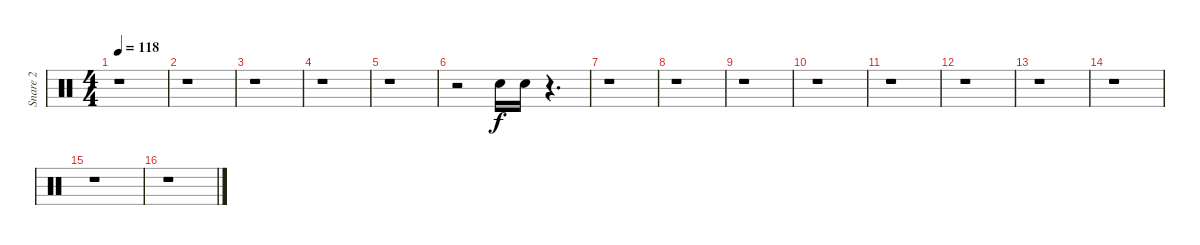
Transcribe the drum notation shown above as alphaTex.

\track ("Snare 2             " "Snare 2   ") {instrument percussion}
\staff {score}
\articulation defaults
\ts (4 4)
\tempo 118
\clef neutral
\ks c
r.1{dy f} |
r.1 |
r.1 |
r.1 |
r.1 |
r.2 "Electric Snare (hit)".16 "Electric Snare (hit)".16 r.4{d} |
r.1 |
r.1 |
r.1 |
r.1 |
r.1 |
r.1 |
r.1 |
r.1 |
r.1 |
r.1
